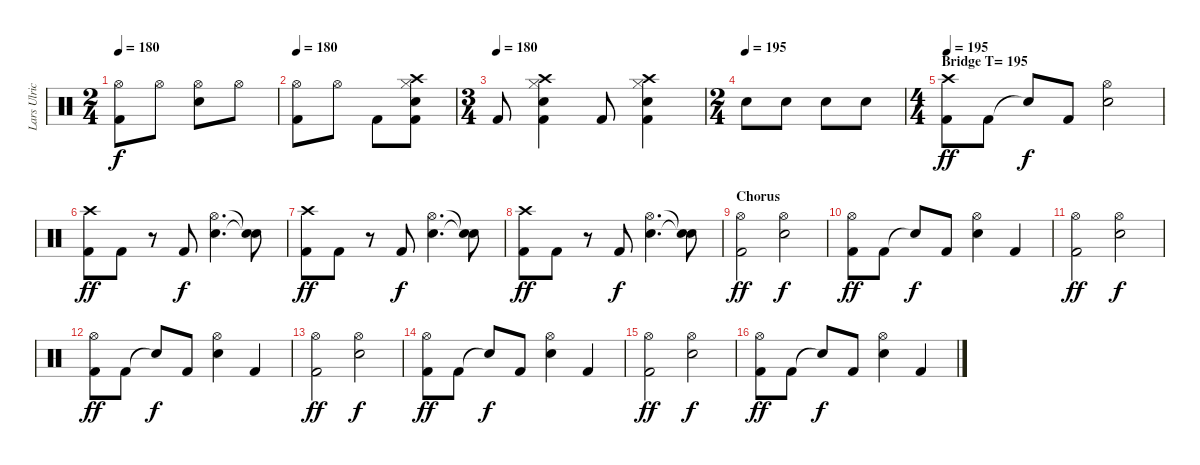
\track ("Lars Ulrich" "Lars Ulric") {instrument percussion}
\staff {score}
\articulation defaults
\ts (2 4)
\tempo 180
\clef neutral
\ks c
("Kick (hit) 2" "Hi-Hat (open)").8{dy f} "Hi-Hat (open)".8 ("Snare (hit) 2" "Hi-Hat (open)").8 "Hi-Hat (open)".8 |
\tempo 180
("Kick (hit) 2" "Hi-Hat (open)").8 "Hi-Hat (open)".8 "Kick (hit) 2".8 ("Kick (hit) 2" "Snare (hit) 2" "Hi-Hat (closed)" "Crash high (hit)").8 |
\ts (3 4)
\tempo (180)
"Kick (hit) 2".8 ("Kick (hit) 2" "Snare (hit) 2" "Hi-Hat (closed)" "Crash high (hit)").4 "Kick (hit) 2".8 ("Kick (hit) 2" "Snare (hit) 2" "Hi-Hat (closed)" "Crash high (hit)").4 |
\ts (2 4)
\tempo (195)
"Snare (hit) 2".8 "Snare (hit) 2".8 "Snare (hit) 2".8 "Snare (hit) 2".8 |
\ts (4 4)
\section ("" "Bridge T= 195 ")
\tempo 195
("Kick (hit) 2" "Crash high (hit)").8{dy ff} "Kick (hit) 2".8 "Snare (hit)"{t}.8{dy f} "Kick (hit) 2".8 ("Snare (hit) 2" "Hi-Hat (open)").2 |
("Kick (hit) 2" "Crash high (hit)").8{dy ff} "Kick (hit) 2".8 r.8 "Kick (hit) 2".8{dy f} ("Snare (hit) 2" "Hi-Hat (open)").4{d} ("Snare (hit)"{t} "Snare (hit)"{t}).8 |
("Kick (hit) 2" "Crash high (hit)").8{dy ff} "Kick (hit) 2".8 r.8 "Kick (hit) 2".8{dy f} ("Snare (hit) 2" "Hi-Hat (open)").4{d} ("Snare (hit)"{t} "Snare (hit)"{t}).8 |
("Kick (hit) 2" "Crash high (hit)").8{dy ff} "Kick (hit) 2".8 r.8 "Kick (hit) 2".8{dy f} ("Snare (hit) 2" "Hi-Hat (open)").4{d} ("Snare (hit)"{t} "Snare (hit)"{t}).8 |
\section ("" "Chorus")
("Kick (hit) 2" "Hi-Hat (open)").2{dy ff} ("Snare (hit) 2" "Hi-Hat (open)").2{dy f} |
("Kick (hit) 2" "Hi-Hat (open)").8{dy ff} "Kick (hit) 2".8 "Snare (hit)"{t}.8{dy f} "Kick (hit) 2".8 ("Snare (hit) 2" "Hi-Hat (open)").4 "Kick (hit) 2".4 |
("Kick (hit) 2" "Hi-Hat (open)").2{dy ff} ("Snare (hit) 2" "Hi-Hat (open)").2{dy f} |
("Kick (hit) 2" "Hi-Hat (open)").8{dy ff} "Kick (hit) 2".8 "Snare (hit)"{t}.8{dy f} "Kick (hit) 2".8 ("Snare (hit) 2" "Hi-Hat (open)").4 "Kick (hit) 2".4 |
("Kick (hit) 2" "Hi-Hat (open)").2{dy ff} ("Snare (hit) 2" "Hi-Hat (open)").2{dy f} |
("Kick (hit) 2" "Hi-Hat (open)").8{dy ff} "Kick (hit) 2".8 "Snare (hit)"{t}.8{dy f} "Kick (hit) 2".8 ("Snare (hit) 2" "Hi-Hat (open)").4 "Kick (hit) 2".4 |
("Kick (hit) 2" "Hi-Hat (open)").2{dy ff} ("Snare (hit) 2" "Hi-Hat (open)").2{dy f} |
("Kick (hit) 2" "Hi-Hat (open)").8{dy ff} "Kick (hit) 2".8 "Snare (hit)"{t}.8{dy f} "Kick (hit) 2".8 ("Snare (hit) 2" "Hi-Hat (open)").4 "Kick (hit) 2".4
